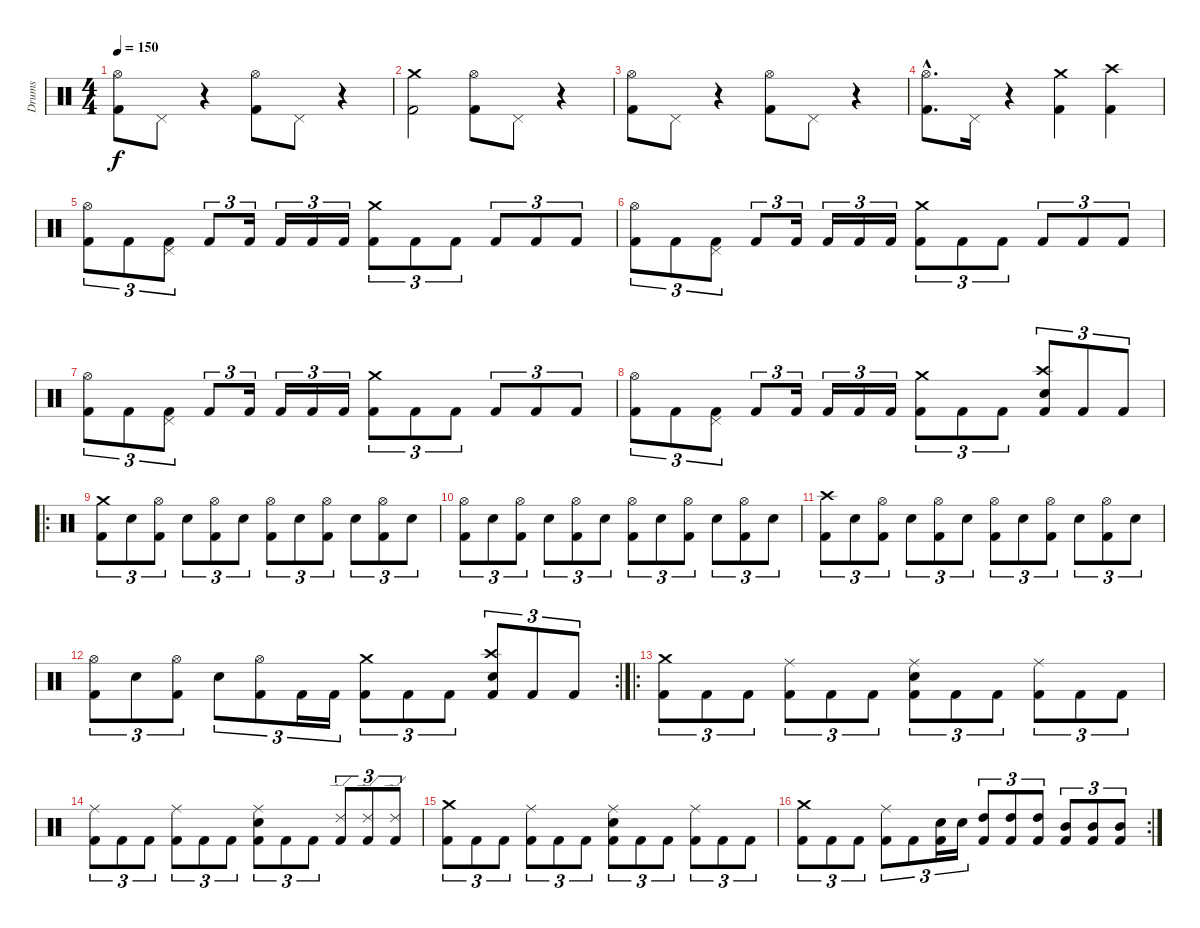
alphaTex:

\track ("Drums" "Drums") {instrument percussion}
\staff {score}
\articulation defaults
\ts (4 4)
\tempo 150
\clef neutral
\ks c
("Kick (hit) 2" "Hi-Hat (open)").8{dy f} "Pedal Hi-Hat (hit)".8 r.4 ("Kick (hit) 2" "Hi-Hat (open)").8 "Pedal Hi-Hat (hit)".8 r.4 |
("Kick (hit) 2" "Crash medium (hit)").2 ("Kick (hit) 2" "Hi-Hat (open)").8 "Pedal Hi-Hat (hit)".8 r.4 |
("Kick (hit) 2" "Hi-Hat (open)").8 "Pedal Hi-Hat (hit)".8 r.4 ("Kick (hit) 2" "Hi-Hat (open)").8 "Pedal Hi-Hat (hit)".8 r.4 |
("Kick (hit) 2"{hac} "Hi-Hat (open)"{hac}).8{d} "Pedal Hi-Hat (hit)".16 r.4 ("Kick (hit) 2" "Crash medium (hit)").4 ("Kick (hit) 2" "Crash high (hit)").4 |
("Kick (hit) 2" "Hi-Hat (open)").8{tu (3 2)} "Kick (hit) 2".8{tu (3 2)} ("Kick (hit) 2" "Pedal Hi-Hat (hit)").8{tu (3 2)} "Kick (hit) 2".8{tu (3 2)} "Kick (hit) 2".16{tu (3 2)} "Kick (hit) 2".16{tu (3 2)} "Kick (hit) 2".16{tu (3 2)} "Kick (hit) 2".16{tu (3 2)} ("Kick (hit) 2" "Crash medium (hit)").8{tu (3 2)} "Kick (hit) 2".8{tu (3 2)} "Kick (hit) 2".8{tu (3 2)} "Kick (hit) 2".8{tu (3 2)} "Kick (hit) 2".8{tu (3 2)} "Kick (hit) 2".8{tu (3 2)} |
("Kick (hit) 2" "Hi-Hat (open)").8{tu (3 2)} "Kick (hit) 2".8{tu (3 2)} ("Kick (hit) 2" "Pedal Hi-Hat (hit)").8{tu (3 2)} "Kick (hit) 2".8{tu (3 2)} "Kick (hit) 2".16{tu (3 2)} "Kick (hit) 2".16{tu (3 2)} "Kick (hit) 2".16{tu (3 2)} "Kick (hit) 2".16{tu (3 2)} ("Kick (hit) 2" "Crash medium (hit)").8{tu (3 2)} "Kick (hit) 2".8{tu (3 2)} "Kick (hit) 2".8{tu (3 2)} "Kick (hit) 2".8{tu (3 2)} "Kick (hit) 2".8{tu (3 2)} "Kick (hit) 2".8{tu (3 2)} |
("Kick (hit) 2" "Hi-Hat (open)").8{tu (3 2)} "Kick (hit) 2".8{tu (3 2)} ("Kick (hit) 2" "Pedal Hi-Hat (hit)").8{tu (3 2)} "Kick (hit) 2".8{tu (3 2)} "Kick (hit) 2".16{tu (3 2)} "Kick (hit) 2".16{tu (3 2)} "Kick (hit) 2".16{tu (3 2)} "Kick (hit) 2".16{tu (3 2)} ("Kick (hit) 2" "Crash medium (hit)").8{tu (3 2)} "Kick (hit) 2".8{tu (3 2)} "Kick (hit) 2".8{tu (3 2)} "Kick (hit) 2".8{tu (3 2)} "Kick (hit) 2".8{tu (3 2)} "Kick (hit) 2".8{tu (3 2)} |
("Kick (hit) 2" "Hi-Hat (open)").8{tu (3 2)} "Kick (hit) 2".8{tu (3 2)} ("Kick (hit) 2" "Pedal Hi-Hat (hit)").8{tu (3 2)} "Kick (hit) 2".8{tu (3 2)} "Kick (hit) 2".16{tu (3 2)} "Kick (hit) 2".16{tu (3 2)} "Kick (hit) 2".16{tu (3 2)} "Kick (hit) 2".16{tu (3 2)} ("Kick (hit) 2" "Crash medium (hit)").8{tu (3 2)} "Kick (hit) 2".8{tu (3 2)} "Kick (hit) 2".8{tu (3 2)} ("Kick (hit) 2" "Electric Snare (hit)" "Crash high (hit)").8{tu (3 2)} "Kick (hit) 2".8{tu (3 2)} "Kick (hit) 2".8{tu (3 2)} |
\ro
("Kick (hit) 2" "Crash medium (hit)").8{tu (3 2)} "Electric Snare (hit)".8{tu (3 2)} ("Kick (hit) 2" "Hi-Hat (open)").8{tu (3 2)} "Electric Snare (hit)".8{tu (3 2)} ("Kick (hit) 2" "Hi-Hat (open)").8{tu (3 2)} "Electric Snare (hit)".8{tu (3 2)} ("Kick (hit) 2" "Hi-Hat (open)").8{tu (3 2)} "Electric Snare (hit)".8{tu (3 2)} ("Kick (hit) 2" "Hi-Hat (open)").8{tu (3 2)} "Electric Snare (hit)".8{tu (3 2)} ("Kick (hit) 2" "Hi-Hat (open)").8{tu (3 2)} "Electric Snare (hit)".8{tu (3 2)} |
("Kick (hit) 2" "Hi-Hat (open)").8{tu (3 2)} "Electric Snare (hit)".8{tu (3 2)} ("Kick (hit) 2" "Hi-Hat (open)").8{tu (3 2)} "Electric Snare (hit)".8{tu (3 2)} ("Kick (hit) 2" "Hi-Hat (open)").8{tu (3 2)} "Electric Snare (hit)".8{tu (3 2)} ("Kick (hit) 2" "Hi-Hat (open)").8{tu (3 2)} "Electric Snare (hit)".8{tu (3 2)} ("Kick (hit) 2" "Hi-Hat (open)").8{tu (3 2)} "Electric Snare (hit)".8{tu (3 2)} ("Kick (hit) 2" "Hi-Hat (open)").8{tu (3 2)} "Electric Snare (hit)".8{tu (3 2)} |
("Kick (hit) 2" "Crash high (hit)").8{tu (3 2)} "Electric Snare (hit)".8{tu (3 2)} ("Kick (hit) 2" "Hi-Hat (open)").8{tu (3 2)} "Electric Snare (hit)".8{tu (3 2)} ("Kick (hit) 2" "Hi-Hat (open)").8{tu (3 2)} "Electric Snare (hit)".8{tu (3 2)} ("Kick (hit) 2" "Hi-Hat (open)").8{tu (3 2)} "Electric Snare (hit)".8{tu (3 2)} ("Kick (hit) 2" "Hi-Hat (open)").8{tu (3 2)} "Electric Snare (hit)".8{tu (3 2)} ("Kick (hit) 2" "Hi-Hat (open)").8{tu (3 2)} "Electric Snare (hit)".8{tu (3 2)} |
\rc 2
("Kick (hit) 2" "Hi-Hat (open)").8{tu (3 2)} "Electric Snare (hit)".8{tu (3 2)} ("Kick (hit) 2" "Hi-Hat (open)").8{tu (3 2)} "Electric Snare (hit)".8{tu (3 2)} ("Kick (hit) 2" "Hi-Hat (open)").8{tu (3 2)} "Kick (hit) 2".16{tu (3 2)} "Kick (hit) 2".16{tu (3 2)} ("Kick (hit) 2" "Crash medium (hit)").8{tu (3 2)} "Kick (hit) 2".8{tu (3 2)} "Kick (hit) 2".8{tu (3 2)} ("Kick (hit) 2" "Electric Snare (hit)" "Crash high (hit)").8{tu (3 2)} "Kick (hit) 2".8{tu (3 2)} "Kick (hit) 2".8{tu (3 2)} |
\ro
("Kick (hit) 2" "Crash medium (hit)").8{tu (3 2)} "Kick (hit) 2".8{tu (3 2)} "Kick (hit) 2".8{tu (3 2)} ("Kick (hit) 2" "Ride (middle)").8{tu (3 2)} "Kick (hit) 2".8{tu (3 2)} "Kick (hit) 2".8{tu (3 2)} ("Kick (hit) 2" "Electric Snare (hit)" "Ride (middle)").8{tu (3 2)} "Kick (hit) 2".8{tu (3 2)} "Kick (hit) 2".8{tu (3 2)} ("Kick (hit) 2" "Ride (middle)").8{tu (3 2)} "Kick (hit) 2".8{tu (3 2)} "Kick (hit) 2".8{tu (3 2)} |
("Kick (hit) 2" "Ride (middle)").8{tu (3 2)} "Kick (hit) 2".8{tu (3 2)} "Kick (hit) 2".8{tu (3 2)} ("Kick (hit) 2" "Ride (middle)").8{tu (3 2)} "Kick (hit) 2".8{tu (3 2)} "Kick (hit) 2".8{tu (3 2)} ("Kick (hit) 2" "Electric Snare (hit)" "Ride (middle)").8{tu (3 2)} "Kick (hit) 2".8{tu (3 2)} "Kick (hit) 2".8{tu (3 2)} ("Kick (hit) 2" "Ride (edge) 2").8{tu (3 2)} ("Kick (hit) 2" "Ride (edge) 2").8{tu (3 2)} ("Kick (hit) 2" "Ride (edge) 2").8{tu (3 2)} |
("Kick (hit) 2" "Crash medium (hit)").8{tu (3 2)} "Kick (hit) 2".8{tu (3 2)} "Kick (hit) 2".8{tu (3 2)} ("Kick (hit) 2" "Ride (middle)").8{tu (3 2)} "Kick (hit) 2".8{tu (3 2)} "Kick (hit) 2".8{tu (3 2)} ("Kick (hit) 2" "Electric Snare (hit)" "Ride (middle)").8{tu (3 2)} "Kick (hit) 2".8{tu (3 2)} "Kick (hit) 2".8{tu (3 2)} ("Kick (hit) 2" "Ride (middle)").8{tu (3 2)} "Kick (hit) 2".8{tu (3 2)} "Kick (hit) 2".8{tu (3 2)} |
\rc 2
("Kick (hit) 2" "Crash medium (hit)").8{tu (3 2)} "Kick (hit) 2".8{tu (3 2)} "Kick (hit) 2".8{tu (3 2)} ("Kick (hit) 2" "Ride (middle)").8{tu (3 2)} "Kick (hit) 2".8{tu (3 2)} ("Kick (hit) 2" "Electric Snare (hit)").16{tu (3 2)} "Electric Snare (hit)".16{tu (3 2)} ("Kick (hit) 2" "High Tom (hit)").8{tu (3 2)} ("Kick (hit) 2" "High Tom (hit)").8{tu (3 2)} ("Kick (hit) 2" "High Tom (hit)").8{tu (3 2)} ("Kick (hit) 2" "Mid Tom (hit)").8{tu (3 2)} ("Kick (hit) 2" "Mid Tom (hit)").8{tu (3 2)} ("Kick (hit) 2" "Mid Tom (hit)").8{tu (3 2)}
